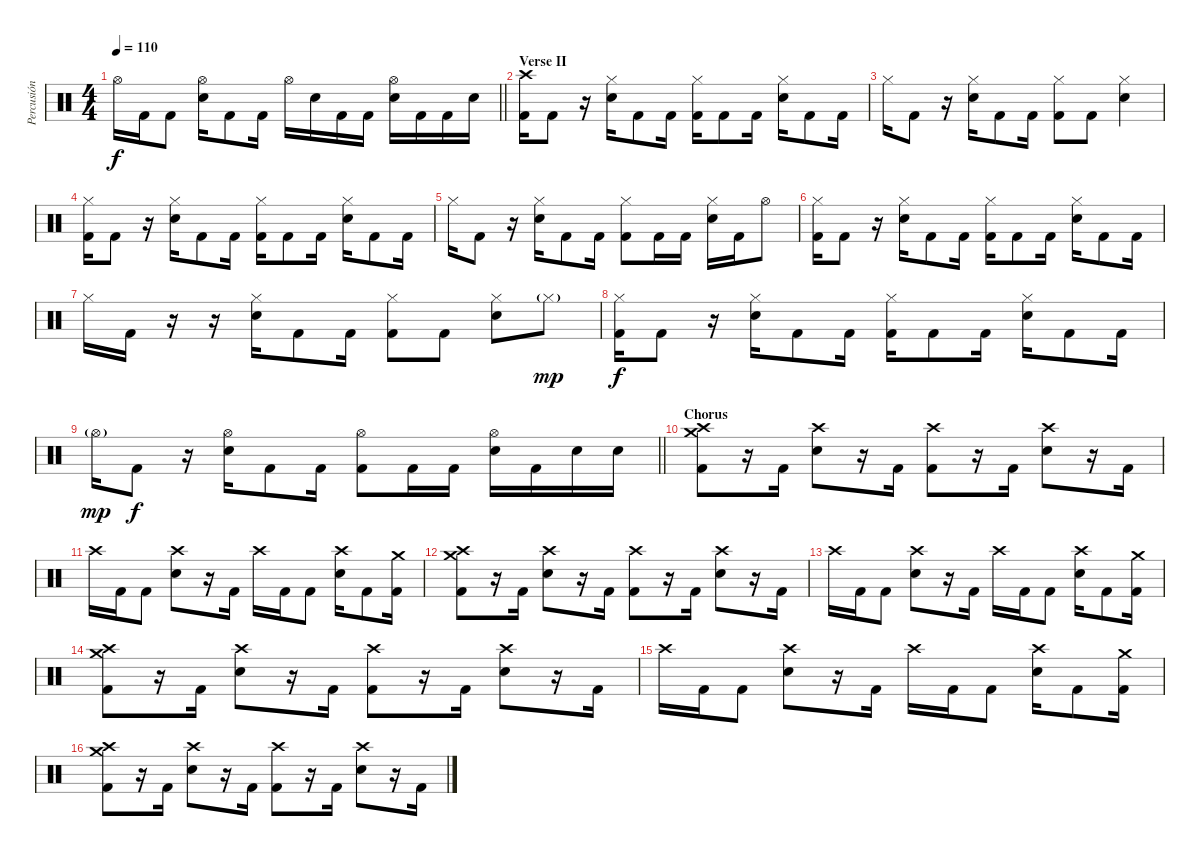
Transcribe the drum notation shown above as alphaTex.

\track ("Percusión" "Percusión") {instrument percussion}
\staff {score}
\articulation defaults
\ts (4 4)
\tempo 110
\clef neutral
\barLineRight lightlight
\ks c "Hi-Hat (open)".16{dy f} "Kick (hit) 2".16 "Kick (hit) 2".8
("Hi-Hat (open)" "Snare (hit) 2").16 "Kick (hit) 2".8 "Kick (hit) 2".16 "Hi-Hat (open)".16 "Snare (hit) 2".16 "Kick (hit) 2".16 "Kick (hit) 2".16 ("Hi-Hat (open)" "Snare (hit) 2").16 "Kick (hit) 2".16 "Kick (hit) 2".16 "Snare (hit) 2".16 |
\section ("" "Verse II")
("Crash high (hit)" "Kick (hit) 2").16 "Kick (hit) 2".8 r.16 ("Hi-Hat (closed)" "Snare (hit) 2").16 "Kick (hit) 2".8 "Kick (hit) 2".16 ("Hi-Hat (closed)" "Kick (hit) 2").16 "Kick (hit) 2".8 "Kick (hit) 2".16 ("Hi-Hat (closed)" "Snare (hit) 2").16 "Kick (hit) 2".8 "Kick (hit) 2".16 |
"Hi-Hat (closed)".16 "Kick (hit) 2".8 r.16 ("Hi-Hat (closed)" "Snare (hit) 2").16 "Kick (hit) 2".8 "Kick (hit) 2".16 ("Hi-Hat (closed)" "Kick (hit) 2").8 "Kick (hit) 2".8 ("Hi-Hat (closed)" "Snare (hit) 2").4 |
("Hi-Hat (closed)" "Kick (hit) 2").16 "Kick (hit) 2".8 r.16 ("Hi-Hat (closed)" "Snare (hit) 2").16 "Kick (hit) 2".8 "Kick (hit) 2".16 ("Hi-Hat (closed)" "Kick (hit) 2").16 "Kick (hit) 2".8 "Kick (hit) 2".16 ("Hi-Hat (closed)" "Snare (hit) 2").16 "Kick (hit) 2".8 "Kick (hit) 2".16 |
"Hi-Hat (closed)".16 "Kick (hit) 2".8 r.16 ("Hi-Hat (closed)" "Snare (hit) 2").16 "Kick (hit) 2".8 "Kick (hit) 2".16 ("Hi-Hat (closed)" "Kick (hit) 2").8 "Kick (hit) 2".16 "Kick (hit) 2".16 ("Hi-Hat (closed)" "Snare (hit) 2").16 "Kick (hit) 2".16 "Hi-Hat (open)".8 |
("Hi-Hat (closed)" "Kick (hit) 2").16 "Kick (hit) 2".8 r.16 ("Hi-Hat (closed)" "Snare (hit) 2").16 "Kick (hit) 2".8 "Kick (hit) 2".16 ("Hi-Hat (closed)" "Kick (hit) 2").16 "Kick (hit) 2".8 "Kick (hit) 2".16 ("Hi-Hat (closed)" "Snare (hit) 2").16 "Kick (hit) 2".8 "Kick (hit) 2".16 |
"Hi-Hat (closed)".16 "Kick (hit) 2".16 r.16 r.16 ("Hi-Hat (closed)" "Snare (hit) 2").16 "Kick (hit) 2".8 "Kick (hit) 2".16 ("Hi-Hat (closed)" "Kick (hit) 2").8 "Kick (hit) 2".8 ("Hi-Hat (closed)" "Snare (hit) 2").8 "Hi-Hat (closed)"{g}.8{dy mp} |
("Hi-Hat (closed)" "Kick (hit) 2").16{dy f} "Kick (hit) 2".8 r.16 ("Hi-Hat (closed)" "Snare (hit) 2").16 "Kick (hit) 2".8 "Kick (hit) 2".16 ("Hi-Hat (closed)" "Kick (hit) 2").16 "Kick (hit) 2".8 "Kick (hit) 2".16 ("Hi-Hat (closed)" "Snare (hit) 2").16 "Kick (hit) 2".8 "Kick (hit) 2".16 |
\barLineRight lightlight "Hi-Hat (open)"{g}.16{dy mp} "Kick (hit) 2".8{dy f}
r.16 ("Hi-Hat (open)" "Snare (hit) 2").16 "Kick (hit) 2".8 "Kick (hit) 2".16 ("Hi-Hat (open)" "Kick (hit) 2").8 "Kick (hit) 2".16 "Kick (hit) 2".16 ("Hi-Hat (open)" "Snare (hit) 2").16 "Kick (hit) 2".16 "Snare (hit) 2".16 "Snare (hit) 2".16 |
\section ("" "Chorus")
("Crash high (hit)" "Crash medium (hit)" "Kick (hit) 2").8 r.16 "Kick (hit) 2".16 ("Crash high (hit)" "Snare (hit) 2").8 r.16 "Kick (hit) 2".16 ("Crash high (hit)" "Kick (hit) 2").8 r.16 "Kick (hit) 2".16 ("Crash high (hit)" "Snare (hit) 2").8 r.16 "Kick (hit) 2".16 |
"Crash high (hit)".16 "Kick (hit) 2".16 "Kick (hit) 2".8 ("Crash high (hit)" "Snare (hit) 2").8 r.16 "Kick (hit) 2".16 "Crash high (hit)".16 "Kick (hit) 2".16 "Kick (hit) 2".8 ("Crash high (hit)" "Snare (hit) 2").16 "Kick (hit) 2".8 ("Crash medium (hit)" "Kick (hit) 2").16 |
("Crash high (hit)" "Crash medium (hit)" "Kick (hit) 2").8 r.16 "Kick (hit) 2".16 ("Crash high (hit)" "Snare (hit) 2").8 r.16 "Kick (hit) 2".16 ("Crash high (hit)" "Kick (hit) 2").8 r.16 "Kick (hit) 2".16 ("Crash high (hit)" "Snare (hit) 2").8 r.16 "Kick (hit) 2".16 |
"Crash high (hit)".16 "Kick (hit) 2".16 "Kick (hit) 2".8 ("Crash high (hit)" "Snare (hit) 2").8 r.16 "Kick (hit) 2".16 "Crash high (hit)".16 "Kick (hit) 2".16 "Kick (hit) 2".8 ("Crash high (hit)" "Snare (hit) 2").16 "Kick (hit) 2".8 ("Crash medium (hit)" "Kick (hit) 2").16 |
("Crash high (hit)" "Crash medium (hit)" "Kick (hit) 2").8 r.16 "Kick (hit) 2".16 ("Crash high (hit)" "Snare (hit) 2").8 r.16 "Kick (hit) 2".16 ("Crash high (hit)" "Kick (hit) 2").8 r.16 "Kick (hit) 2".16 ("Crash high (hit)" "Snare (hit) 2").8 r.16 "Kick (hit) 2".16 |
"Crash high (hit)".16 "Kick (hit) 2".16 "Kick (hit) 2".8 ("Crash high (hit)" "Snare (hit) 2").8 r.16 "Kick (hit) 2".16 "Crash high (hit)".16 "Kick (hit) 2".16 "Kick (hit) 2".8 ("Crash high (hit)" "Snare (hit) 2").16 "Kick (hit) 2".8 ("Crash medium (hit)" "Kick (hit) 2").16 |
("Crash high (hit)" "Crash medium (hit)" "Kick (hit) 2").8 r.16 "Kick (hit) 2".16 ("Crash high (hit)" "Snare (hit) 2").8 r.16 "Kick (hit) 2".16 ("Crash high (hit)" "Kick (hit) 2").8 r.16 "Kick (hit) 2".16 ("Crash high (hit)" "Snare (hit) 2").8 r.16 "Kick (hit) 2".16
